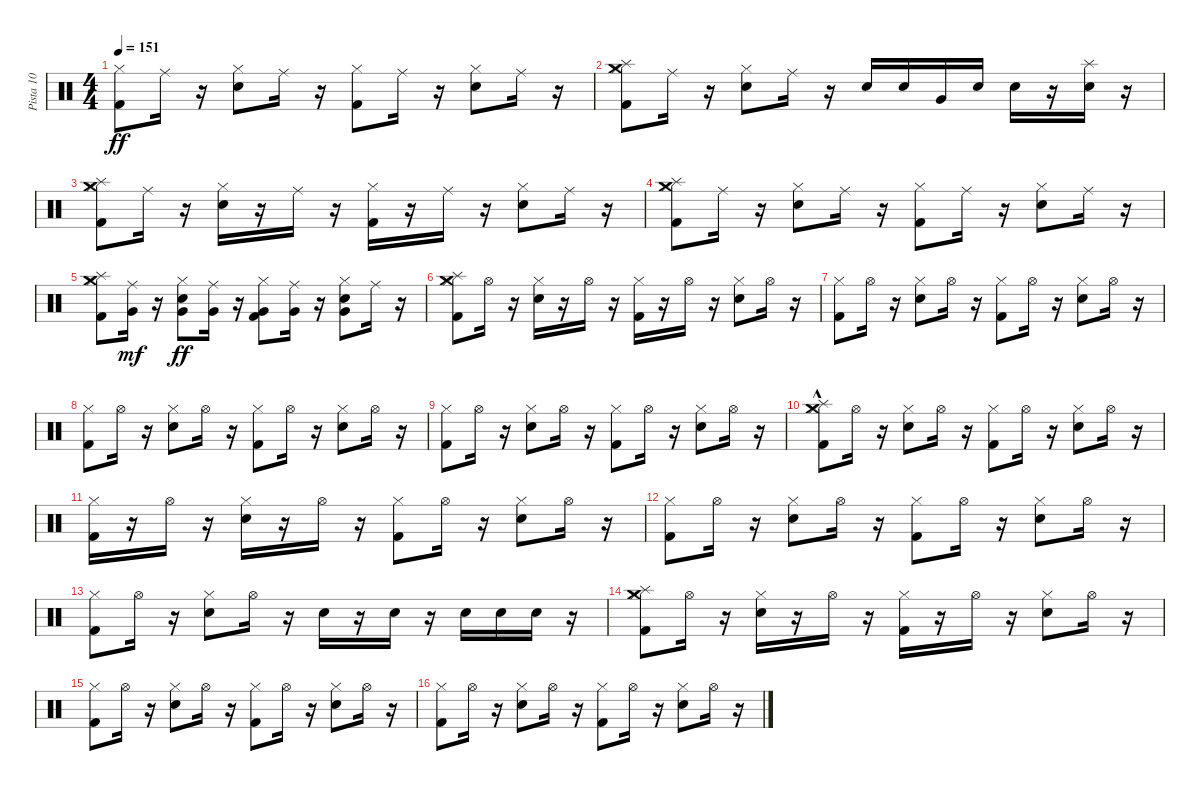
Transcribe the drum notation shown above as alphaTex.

\track ("Pista 10" "Pista 10") {instrument percussion}
\staff {score}
\articulation defaults
\ts (4 4)
\tempo 151
\clef neutral
\ks c
("Hi-Hat (closed)" "Kick (hit) 2").8{dy ff} "Ride (middle)".16 r.16 ("Hi-Hat (closed)" "Snare (hit) 2").8 "Ride (middle)".16 r.16 ("Hi-Hat (closed)" "Kick (hit) 2").8 "Ride (middle)".16 r.16 ("Hi-Hat (closed)" "Snare (hit) 2").8 "Ride (middle)".16 r.16 |
("Crash medium (hit)" "Splash (hit)" "Hi-Hat (closed)" "Kick (hit) 2").8 "Ride (middle)".16 r.16 ("Snare (hit) 2" "Hi-Hat (closed)").8 "Ride (middle)".16 r.16 "Snare (hit) 2".16 "Snare (hit) 2".16 "Very Low Tom (hit)".16 "Snare (hit) 2".16 "Snare (hit) 2".16 r.16 ("Splash (hit)" "Snare (hit) 2").16 r.16 |
("Hi-Hat (closed)" "Kick (hit) 2" "Splash (hit)" "Crash medium (hit)").8 "Ride (middle)".16 r.16 ("Snare (hit) 2" "Hi-Hat (closed)").16 r.16 "Ride (middle)".16 r.16 ("Kick (hit) 2" "Hi-Hat (closed)").16 r.16 "Ride (middle)".16 r.16 ("Snare (hit) 2" "Hi-Hat (closed)").8 "Ride (middle)".16 r.16 |
("Kick (hit) 2" "Hi-Hat (closed)" "Crash medium (hit)" "Splash (hit)").8 "Ride (middle)".16 r.16 ("Snare (hit) 2" "Hi-Hat (closed)").8 "Ride (middle)".16 r.16 ("Kick (hit) 2" "Hi-Hat (closed)").8 "Ride (middle)".16 r.16 ("Hi-Hat (closed)" "Snare (hit) 2").8 "Ride (middle)".16 r.16 |
("Splash (hit)" "Crash medium (hit)" "Hi-Hat (closed)" "Kick (hit) 2").8 ("Ride (middle)" "Very Low Tom (hit)").16{dy mf} r.16 ("Hi-Hat (closed)" "Snare (hit) 2" "Very Low Tom (hit)").8{dy ff} ("Ride (middle)" "Very Low Tom (hit)").16 r.16 ("Very Low Tom (hit)" "Kick (hit) 2" "Hi-Hat (closed)").8 ("Very Low Tom (hit)" "Ride (middle)").16 r.16 ("Very Low Tom (hit)" "Snare (hit) 2" "Hi-Hat (closed)").8 "Ride (middle)".16 r.16 |
("Splash (hit)" "Crash medium (hit)" "Hi-Hat (closed)" "Kick (hit) 2").8 "Hi-Hat (open)".16 r.16 ("Hi-Hat (closed)" "Snare (hit) 2").16 r.16 "Hi-Hat (open)".16 r.16 ("Hi-Hat (closed)" "Kick (hit) 2").16 r.16 "Hi-Hat (open)".16 r.16 ("Hi-Hat (closed)" "Snare (hit) 2").8 "Hi-Hat (open)".16 r.16 |
("Hi-Hat (closed)" "Kick (hit) 2").8 "Hi-Hat (open)".16 r.16 ("Hi-Hat (closed)" "Snare (hit) 2").8 "Hi-Hat (open)".16 r.16 ("Kick (hit) 2" "Hi-Hat (closed)").8 "Hi-Hat (open)".16 r.16 ("Snare (hit) 2" "Hi-Hat (closed)").8 "Hi-Hat (open)".16 r.16 |
("Hi-Hat (closed)" "Kick (hit) 2").8 "Hi-Hat (open)".16 r.16 ("Hi-Hat (closed)" "Snare (hit) 2").8 "Hi-Hat (open)".16 r.16 ("Hi-Hat (closed)" "Kick (hit) 2").8 "Hi-Hat (open)".16 r.16 ("Hi-Hat (closed)" "Snare (hit) 2").8 "Hi-Hat (open)".16 r.16 |
("Hi-Hat (closed)" "Kick (hit) 2").8 "Hi-Hat (open)".16 r.16 ("Hi-Hat (closed)" "Snare (hit) 2").8 "Hi-Hat (open)".16 r.16 ("Hi-Hat (closed)" "Kick (hit) 2").8 "Hi-Hat (open)".16 r.16 ("Hi-Hat (closed)" "Snare (hit) 2").8 "Hi-Hat (open)".16 r.16 |
("Kick (hit) 2" "Hi-Hat (closed)" "Splash (hit)"{hac} "Crash medium (hit)"{hac}).8 "Hi-Hat (open)".16 r.16 ("Snare (hit) 2" "Hi-Hat (closed)").8 "Hi-Hat (open)".16 r.16 ("Kick (hit) 2" "Hi-Hat (closed)").8 "Hi-Hat (open)".16 r.16 ("Hi-Hat (closed)" "Snare (hit) 2").8 "Hi-Hat (open)".16 r.16 |
("Hi-Hat (closed)" "Kick (hit) 2").16 r.16 "Hi-Hat (open)".16 r.16 ("Hi-Hat (closed)" "Snare (hit) 2").16 r.16 "Hi-Hat (open)".16 r.16 ("Hi-Hat (closed)" "Kick (hit) 2").8 "Hi-Hat (open)".16 r.16 ("Hi-Hat (closed)" "Snare (hit) 2").8 "Hi-Hat (open)".16 r.16 |
("Hi-Hat (closed)" "Kick (hit) 2").8 "Hi-Hat (open)".16 r.16 ("Hi-Hat (closed)" "Snare (hit) 2").8 "Hi-Hat (open)".16 r.16 ("Kick (hit) 2" "Hi-Hat (closed)").8 "Hi-Hat (open)".16 r.16 ("Snare (hit) 2" "Hi-Hat (closed)").8 "Hi-Hat (open)".16 r.16 |
("Kick (hit) 2" "Hi-Hat (closed)").8 "Hi-Hat (open)".16 r.16 ("Hi-Hat (closed)" "Snare (hit) 2").8 "Hi-Hat (open)".16 r.16 "Snare (hit) 2".16 r.16 "Snare (hit) 2".16 r.16 "Snare (hit) 2".16 "Snare (hit) 2".16 "Snare (hit) 2".16 r.16 |
("Hi-Hat (closed)" "Kick (hit) 2" "Splash (hit)" "Crash medium (hit)").8 "Hi-Hat (open)".16 r.16 ("Hi-Hat (closed)" "Snare (hit) 2").16 r.16 "Hi-Hat (open)".16 r.16 ("Hi-Hat (closed)" "Kick (hit) 2").16 r.16 "Hi-Hat (open)".16 r.16 ("Hi-Hat (closed)" "Snare (hit) 2").8 "Hi-Hat (open)".16 r.16 |
("Kick (hit) 2" "Hi-Hat (closed)").8 "Hi-Hat (open)".16 r.16 ("Snare (hit) 2" "Hi-Hat (closed)").8 "Hi-Hat (open)".16 r.16 ("Kick (hit) 2" "Hi-Hat (closed)").8 "Hi-Hat (open)".16 r.16 ("Hi-Hat (closed)" "Snare (hit) 2").8 "Hi-Hat (open)".16 r.16 |
("Hi-Hat (closed)" "Kick (hit) 2").8 "Hi-Hat (open)".16 r.16 ("Hi-Hat (closed)" "Snare (hit) 2").8 "Hi-Hat (open)".16 r.16 ("Hi-Hat (closed)" "Kick (hit) 2").8 "Hi-Hat (open)".16 r.16 ("Hi-Hat (closed)" "Snare (hit) 2").8 "Hi-Hat (open)".16 r.16
